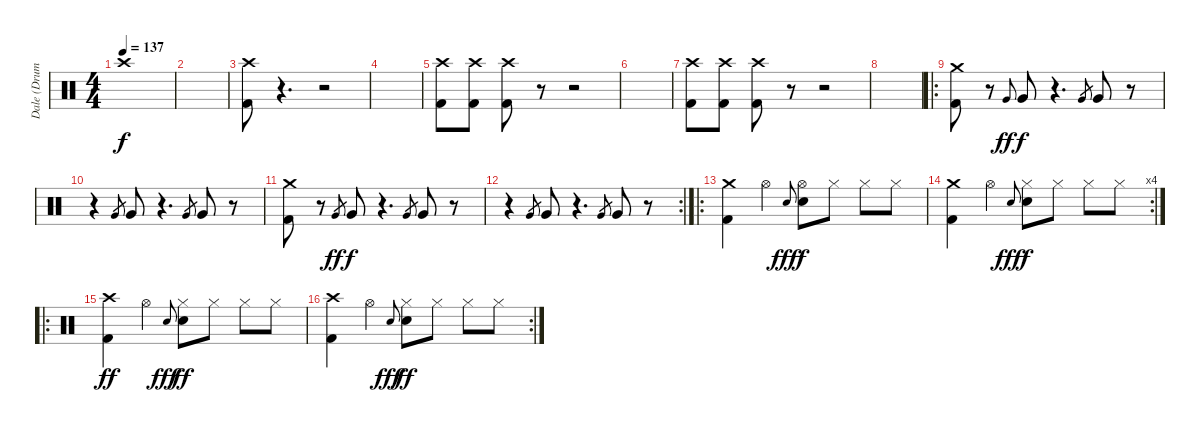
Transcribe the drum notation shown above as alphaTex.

\track ("Dale (Drums 1)" "Dale (Drum") {instrument percussion}
\staff {score}
\articulation defaults
\ts (4 4)
\tempo 137
\clef neutral
\ks c "Crash high (hit)".1{dy f}
|
|
("Crash high (hit)" "Kick (hit) 2").8 r.4{d} r.2 |
|
("Crash high (hit)" "Kick (hit) 2").8 ("Crash high (hit)" "Kick (hit) 2").8 ("Crash high (hit)" "Kick (hit) 2").8 r.8 r.2 |
|
("Crash high (hit)" "Kick (hit) 2").8 ("Crash high (hit)" "Kick (hit) 2").8 ("Crash high (hit)" "Kick (hit) 2").8 r.8 r.2 |
|
\ro
("Kick (hit) 2" "Crash medium (hit)").8 r.8 "Very Low Tom (hit)".8{gr onbeat dy ff} "Very Low Tom (hit)".8{dy f} r.4{d} "Very Low Tom (hit)".8{gr} "Very Low Tom (hit)".8 r.8 |
r.4 "Very Low Tom (hit)".8{gr} "Very Low Tom (hit)".8 r.4{d} "Very Low Tom (hit)".8{gr} "Very Low Tom (hit)".8 r.8 |
("Kick (hit) 2" "Crash medium (hit)").8 r.8 "Very Low Tom (hit)".8{gr dy ff} "Very Low Tom (hit)".8{dy f} r.4{d} "Very Low Tom (hit)".8{gr} "Very Low Tom (hit)".8 r.8 |
\rc 2
r.4 "Very Low Tom (hit)".8{gr} "Very Low Tom (hit)".8 r.4{d} "Very Low Tom (hit)".8{gr} "Very Low Tom (hit)".8 r.8 |
\ro
("Kick (hit) 2" "Crash medium (hit)").4 "Hi-Hat (open)".4 "Snare (hit) 2".8{gr onbeat dy fff} ("Snare (hit) 2" "Hi-Hat (open)").8{dy f} "Hi-Hat (closed)".8 "Hi-Hat (closed)".8 "Hi-Hat (closed)".8 |
\rc 4
("Kick (hit) 2" "Crash medium (hit)").4 "Hi-Hat (open)".4 "Snare (hit) 2".8{gr onbeat dy fff} ("Snare (hit) 2" "Hi-Hat (closed)").8{dy f} "Hi-Hat (closed)".8 "Hi-Hat (closed)".8 "Hi-Hat (closed)".8 |
\ro
("Kick (hit) 2" "Crash high (hit)").4{dy ff} "Hi-Hat (open)".4 "Snare (hit) 2".8{gr onbeat dy fff} ("Snare (hit) 2" "Hi-Hat (closed)").8{dy ff} "Hi-Hat (closed)".8 "Hi-Hat (closed)".8 "Hi-Hat (closed)".8 |
\rc 2
("Kick (hit) 2" "Crash high (hit)").4 "Hi-Hat (open)".4 "Snare (hit) 2".8{gr onbeat dy fff} ("Snare (hit) 2" "Hi-Hat (closed)").8{dy ff} "Hi-Hat (closed)".8 "Hi-Hat (closed)".8 "Hi-Hat (closed)".8
